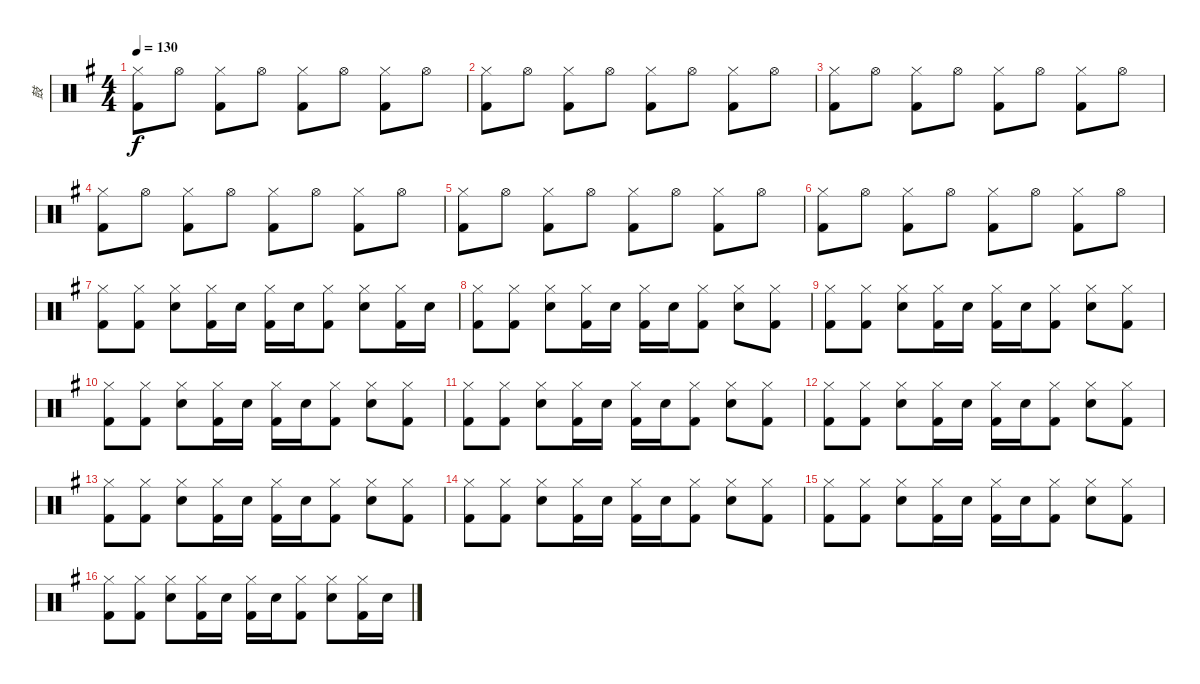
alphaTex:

\track ("鼓" "鼓") {instrument percussion}
\staff {score}
\articulation defaults
\ts (4 4)
\tempo 130
\clef neutral
\ks g
("Hi-Hat (closed)" "Kick (hit) 2").8{dy f} "Hi-Hat (open)".8 ("Hi-Hat (closed)" "Kick (hit) 2").8 "Hi-Hat (open)".8 ("Hi-Hat (closed)" "Kick (hit) 2").8 "Hi-Hat (open)".8 ("Hi-Hat (closed)" "Kick (hit) 2").8 "Hi-Hat (open)".8 |
("Hi-Hat (closed)" "Kick (hit) 2").8 "Hi-Hat (open)".8 ("Hi-Hat (closed)" "Kick (hit) 2").8 "Hi-Hat (open)".8 ("Hi-Hat (closed)" "Kick (hit) 2").8 "Hi-Hat (open)".8 ("Hi-Hat (closed)" "Kick (hit) 2").8 "Hi-Hat (open)".8 |
("Hi-Hat (closed)" "Kick (hit) 2").8 "Hi-Hat (open)".8 ("Hi-Hat (closed)" "Kick (hit) 2").8 "Hi-Hat (open)".8 ("Hi-Hat (closed)" "Kick (hit) 2").8 "Hi-Hat (open)".8 ("Hi-Hat (closed)" "Kick (hit) 2").8 "Hi-Hat (open)".8 |
("Hi-Hat (closed)" "Kick (hit) 2").8 "Hi-Hat (open)".8 ("Hi-Hat (closed)" "Kick (hit) 2").8 "Hi-Hat (open)".8 ("Hi-Hat (closed)" "Kick (hit) 2").8 "Hi-Hat (open)".8 ("Hi-Hat (closed)" "Kick (hit) 2").8 "Hi-Hat (open)".8 |
("Hi-Hat (closed)" "Kick (hit) 2").8 "Hi-Hat (open)".8 ("Hi-Hat (closed)" "Kick (hit) 2").8 "Hi-Hat (open)".8 ("Hi-Hat (closed)" "Kick (hit) 2").8 "Hi-Hat (open)".8 ("Hi-Hat (closed)" "Kick (hit) 2").8 "Hi-Hat (open)".8 |
("Hi-Hat (closed)" "Kick (hit) 2").8 "Hi-Hat (open)".8 ("Hi-Hat (closed)" "Kick (hit) 2").8 "Hi-Hat (open)".8 ("Hi-Hat (closed)" "Kick (hit) 2").8 "Hi-Hat (open)".8 ("Hi-Hat (closed)" "Kick (hit) 2").8 "Hi-Hat (open)".8 |
("Hi-Hat (closed)" "Kick (hit) 2").8 ("Hi-Hat (closed)" "Kick (hit) 2").8 ("Hi-Hat (closed)" "Snare (hit) 2").8 ("Hi-Hat (closed)" "Kick (hit) 2").16 "Snare (hit) 2".16 ("Hi-Hat (closed)" "Kick (hit) 2").16 "Snare (hit) 2".16 ("Hi-Hat (closed)" "Kick (hit) 2").8 ("Hi-Hat (closed)" "Snare (hit) 2").8 ("Hi-Hat (closed)" "Kick (hit) 2").16 "Snare (hit) 2".16 |
("Hi-Hat (closed)" "Kick (hit) 2").8 ("Hi-Hat (closed)" "Kick (hit) 2").8 ("Hi-Hat (closed)" "Snare (hit) 2").8 ("Hi-Hat (closed)" "Kick (hit) 2").16 "Snare (hit) 2".16 ("Hi-Hat (closed)" "Kick (hit) 2").16 "Snare (hit) 2".16 ("Hi-Hat (closed)" "Kick (hit) 2").8 ("Hi-Hat (closed)" "Snare (hit) 2").8 ("Hi-Hat (closed)" "Kick (hit) 2").8 |
("Hi-Hat (closed)" "Kick (hit) 2").8 ("Hi-Hat (closed)" "Kick (hit) 2").8 ("Hi-Hat (closed)" "Snare (hit) 2").8 ("Hi-Hat (closed)" "Kick (hit) 2").16 "Snare (hit) 2".16 ("Hi-Hat (closed)" "Kick (hit) 2").16 "Snare (hit) 2".16 ("Hi-Hat (closed)" "Kick (hit) 2").8 ("Hi-Hat (closed)" "Snare (hit) 2").8 ("Hi-Hat (closed)" "Kick (hit) 2").8 |
("Hi-Hat (closed)" "Kick (hit) 2").8 ("Hi-Hat (closed)" "Kick (hit) 2").8 ("Hi-Hat (closed)" "Snare (hit) 2").8 ("Hi-Hat (closed)" "Kick (hit) 2").16 "Snare (hit) 2".16 ("Hi-Hat (closed)" "Kick (hit) 2").16 "Snare (hit) 2".16 ("Hi-Hat (closed)" "Kick (hit) 2").8 ("Hi-Hat (closed)" "Snare (hit) 2").8 ("Hi-Hat (closed)" "Kick (hit) 2").8 |
("Hi-Hat (closed)" "Kick (hit) 2").8 ("Hi-Hat (closed)" "Kick (hit) 2").8 ("Hi-Hat (closed)" "Snare (hit) 2").8 ("Hi-Hat (closed)" "Kick (hit) 2").16 "Snare (hit) 2".16 ("Hi-Hat (closed)" "Kick (hit) 2").16 "Snare (hit) 2".16 ("Hi-Hat (closed)" "Kick (hit) 2").8 ("Hi-Hat (closed)" "Snare (hit) 2").8 ("Hi-Hat (closed)" "Kick (hit) 2").8 |
("Hi-Hat (closed)" "Kick (hit) 2").8 ("Hi-Hat (closed)" "Kick (hit) 2").8 ("Hi-Hat (closed)" "Snare (hit) 2").8 ("Hi-Hat (closed)" "Kick (hit) 2").16 "Snare (hit) 2".16 ("Hi-Hat (closed)" "Kick (hit) 2").16 "Snare (hit) 2".16 ("Hi-Hat (closed)" "Kick (hit) 2").8 ("Hi-Hat (closed)" "Snare (hit) 2").8 ("Hi-Hat (closed)" "Kick (hit) 2").8 |
("Hi-Hat (closed)" "Kick (hit) 2").8 ("Hi-Hat (closed)" "Kick (hit) 2").8 ("Hi-Hat (closed)" "Snare (hit) 2").8 ("Hi-Hat (closed)" "Kick (hit) 2").16 "Snare (hit) 2".16 ("Hi-Hat (closed)" "Kick (hit) 2").16 "Snare (hit) 2".16 ("Hi-Hat (closed)" "Kick (hit) 2").8 ("Hi-Hat (closed)" "Snare (hit) 2").8 ("Hi-Hat (closed)" "Kick (hit) 2").8 |
("Hi-Hat (closed)" "Kick (hit) 2").8 ("Hi-Hat (closed)" "Kick (hit) 2").8 ("Hi-Hat (closed)" "Snare (hit) 2").8 ("Hi-Hat (closed)" "Kick (hit) 2").16 "Snare (hit) 2".16 ("Hi-Hat (closed)" "Kick (hit) 2").16 "Snare (hit) 2".16 ("Hi-Hat (closed)" "Kick (hit) 2").8 ("Hi-Hat (closed)" "Snare (hit) 2").8 ("Hi-Hat (closed)" "Kick (hit) 2").8 |
("Hi-Hat (closed)" "Kick (hit) 2").8 ("Hi-Hat (closed)" "Kick (hit) 2").8 ("Hi-Hat (closed)" "Snare (hit) 2").8 ("Hi-Hat (closed)" "Kick (hit) 2").16 "Snare (hit) 2".16 ("Hi-Hat (closed)" "Kick (hit) 2").16 "Snare (hit) 2".16 ("Hi-Hat (closed)" "Kick (hit) 2").8 ("Hi-Hat (closed)" "Snare (hit) 2").8 ("Hi-Hat (closed)" "Kick (hit) 2").8 |
("Hi-Hat (closed)" "Kick (hit) 2").8 ("Hi-Hat (closed)" "Kick (hit) 2").8 ("Hi-Hat (closed)" "Snare (hit) 2").8 ("Hi-Hat (closed)" "Kick (hit) 2").16 "Snare (hit) 2".16 ("Hi-Hat (closed)" "Kick (hit) 2").16 "Snare (hit) 2".16 ("Hi-Hat (closed)" "Kick (hit) 2").8 ("Hi-Hat (closed)" "Snare (hit) 2").8 ("Hi-Hat (closed)" "Kick (hit) 2").16 "Snare (hit) 2".16
